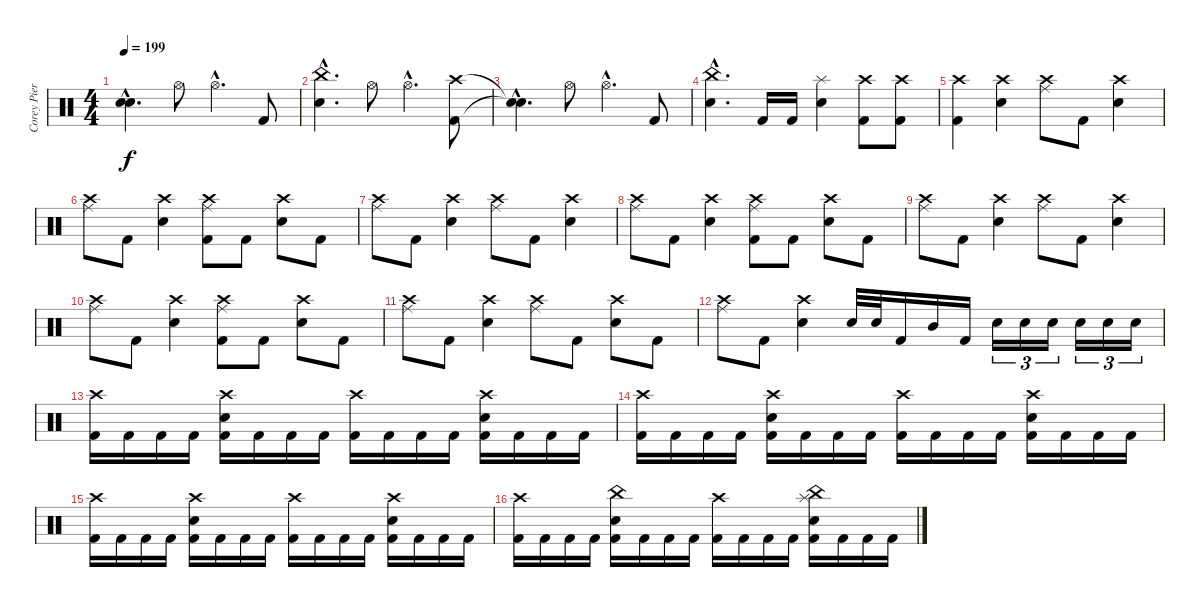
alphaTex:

\track ("Corey Pierce (Drums)" "Corey Pier") {instrument percussion}
\staff {score}
\articulation defaults
\ts (4 4)
\tempo 199
\clef neutral
\ks c
("Snare (hit)"{hac t} "Snare (hit)"{hac t}).4{d dy f} "Hi-Hat (open)".8 "Hi-Hat (open)"{hac}.4{d} "Kick (hit) 2".8 |
("China (hit)"{hac} "Snare (hit) 2"{hac}).4{d} "Hi-Hat (open)".8 "Hi-Hat (open)"{hac}.4{d} ("Crash high (hit)" "Kick (hit) 2").8 |
("Snare (hit)"{hac t} "Snare (hit)"{hac t}).4{d} "Hi-Hat (open)".8 "Hi-Hat (open)"{hac}.4{d} "Kick (hit) 2".8 |
("China (hit)"{hac} "Snare (hit) 2"{hac}).4{d} "Kick (hit) 2".16 "Kick (hit) 2".16 ("Splash (hit)" "Snare (hit) 2").4 ("Crash high (hit)" "Kick (hit) 2").8 ("Crash high (hit)" "Kick (hit) 2").8 |
("Crash high (hit)" "Kick (hit) 2").4 ("Crash high (hit)" "Snare (hit) 2").4 ("Ride (middle)" "Crash high (hit)").8 "Kick (hit) 2".8 ("Crash high (hit)" "Snare (hit) 2").4 |
("Ride (middle)" "Crash high (hit)").8 "Kick (hit) 2".8 ("Crash high (hit)" "Snare (hit) 2").4 ("Ride (middle)" "Crash high (hit)" "Kick (hit) 2").8 "Kick (hit) 2".8 ("Crash high (hit)" "Snare (hit) 2").8 "Kick (hit) 2".8 |
("Ride (middle)" "Crash high (hit)").8 "Kick (hit) 2".8 ("Crash high (hit)" "Snare (hit) 2").4 ("Ride (middle)" "Crash high (hit)").8 "Kick (hit) 2".8 ("Crash high (hit)" "Snare (hit) 2").4 |
("Ride (middle)" "Crash high (hit)").8 "Kick (hit) 2".8 ("Crash high (hit)" "Snare (hit) 2").4 ("Ride (middle)" "Crash high (hit)" "Kick (hit) 2").8 "Kick (hit) 2".8 ("Crash high (hit)" "Snare (hit) 2").8 "Kick (hit) 2".8 |
("Ride (middle)" "Crash high (hit)").8 "Kick (hit) 2".8 ("Crash high (hit)" "Snare (hit) 2").4 ("Ride (middle)" "Crash high (hit)").8 "Kick (hit) 2".8 ("Crash high (hit)" "Snare (hit) 2").4 |
("Ride (middle)" "Crash high (hit)").8 "Kick (hit) 2".8 ("Crash high (hit)" "Snare (hit) 2").4 ("Ride (middle)" "Crash high (hit)" "Kick (hit) 2").8 "Kick (hit) 2".8 ("Crash high (hit)" "Snare (hit) 2").8 "Kick (hit) 2".8 |
("Ride (middle)" "Crash high (hit)").8 "Kick (hit) 2".8 ("Crash high (hit)" "Snare (hit) 2").4 ("Ride (middle)" "Crash high (hit)").8 "Kick (hit) 2".8 ("Crash high (hit)" "Snare (hit) 2").8 "Kick (hit) 2".8 |
("Ride (middle)" "Crash high (hit)").8 "Kick (hit) 2".8 ("Crash high (hit)" "Snare (hit) 2").4 "Snare (hit) 2".32 "Snare (hit) 2".32 "Kick (hit) 2".16 "Mid Tom (hit)".16 "Kick (hit) 2".16 "Snare (hit) 2".16{tu (3 2)} "Snare (hit) 2".16{tu (3 2)} "Snare (hit) 2".16{tu (3 2)} "Snare (hit) 2".16{tu (3 2)} "Snare (hit) 2".16{tu (3 2)} "Snare (hit) 2".16{tu (3 2)} |
("Crash high (hit)" "Kick (hit) 2").16 "Kick (hit) 2".16 "Kick (hit) 2".16 "Kick (hit) 2".16 ("Snare (hit) 2" "Crash high (hit)" "Kick (hit) 2").16 "Kick (hit) 2".16 "Kick (hit) 2".16 "Kick (hit) 2".16 ("Crash high (hit)" "Kick (hit) 2").16 "Kick (hit) 2".16 "Kick (hit) 2".16 "Kick (hit) 2".16 ("Snare (hit) 2" "Crash high (hit)" "Kick (hit) 2").16 "Kick (hit) 2".16 "Kick (hit) 2".16 "Kick (hit) 2".16 |
("Crash high (hit)" "Kick (hit) 2").16 "Kick (hit) 2".16 "Kick (hit) 2".16 "Kick (hit) 2".16 ("Snare (hit) 2" "Crash high (hit)" "Kick (hit) 2").16 "Kick (hit) 2".16 "Kick (hit) 2".16 "Kick (hit) 2".16 ("Crash high (hit)" "Kick (hit) 2").16 "Kick (hit) 2".16 "Kick (hit) 2".16 "Kick (hit) 2".16 ("Snare (hit) 2" "Crash high (hit)" "Kick (hit) 2").16 "Kick (hit) 2".16 "Kick (hit) 2".16 "Kick (hit) 2".16 |
("Crash high (hit)" "Kick (hit) 2").16 "Kick (hit) 2".16 "Kick (hit) 2".16 "Kick (hit) 2".16 ("Snare (hit) 2" "Crash high (hit)" "Kick (hit) 2").16 "Kick (hit) 2".16 "Kick (hit) 2".16 "Kick (hit) 2".16 ("Crash high (hit)" "Kick (hit) 2").16 "Kick (hit) 2".16 "Kick (hit) 2".16 "Kick (hit) 2".16 ("Snare (hit) 2" "Crash high (hit)" "Kick (hit) 2").16 "Kick (hit) 2".16 "Kick (hit) 2".16 "Kick (hit) 2".16 |
("Crash high (hit)" "Kick (hit) 2").16 "Kick (hit) 2".16 "Kick (hit) 2".16 "Kick (hit) 2".16 ("Snare (hit) 2" "China (hit)" "Kick (hit) 2").16 "Kick (hit) 2".16 "Kick (hit) 2".16 "Kick (hit) 2".16 ("Crash high (hit)" "Kick (hit) 2").16 "Kick (hit) 2".16 "Kick (hit) 2".16 "Kick (hit) 2".16 ("Splash (hit)" "Snare (hit) 2" "China (hit)" "Kick (hit) 2").16 "Kick (hit) 2".16 "Kick (hit) 2".16 "Kick (hit) 2".16
